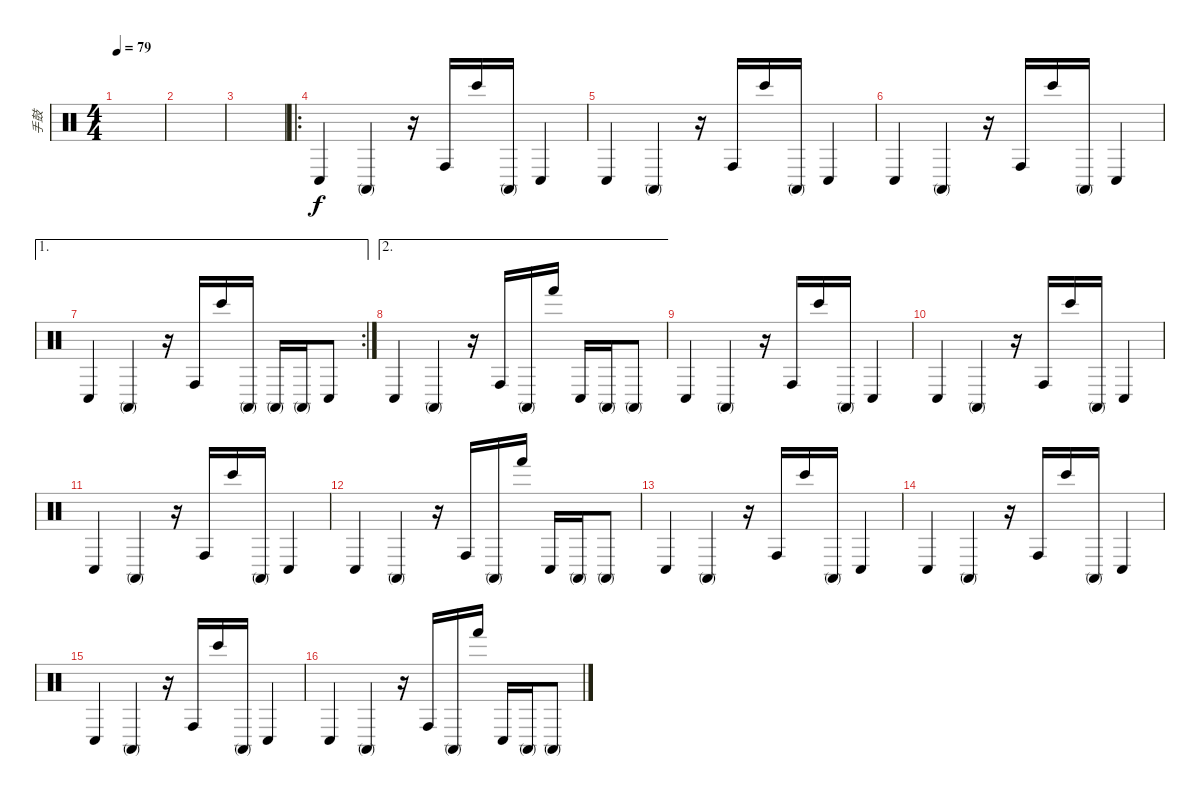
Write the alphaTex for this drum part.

\track ("手鼓" "手鼓") {instrument percussion}
\staff {score}
\articulation defaults
\ts (4 4)
\tempo 79
\clef neutral
\ks c
|
|
|
\ro "Conga low (hit)".4 "Conga high (mute)".4
r.16 "Conga high (hit)".16 "Bongo High (hit)".16 "Conga high (mute)".16 "Conga low (hit)".4 |
"Conga low (hit)".4 "Conga high (mute)".4 r.16 "Conga high (hit)".16 "Bongo High (hit)".16 "Conga high (mute)".16 "Conga low (hit)".4 |
"Conga low (hit)".4 "Conga high (mute)".4 r.16 "Conga high (hit)".16 "Bongo High (hit)".16 "Conga high (mute)".16 "Conga low (hit)".4 |
\ae 1
\rc 2 "Conga low (hit)".4 "Conga high (mute)".4
r.16 "Conga high (hit)".16 "Bongo High (hit)".16 "Conga high (mute)".16 "Conga high (mute)".16 "Conga high (mute)".16 "Conga low (hit)".8 |
\ae 2 "Conga low (hit)".4 "Conga high (mute)".4
r.16 "Conga high (hit)".16 "Conga high (mute)".16 "Hand (hit)".16 "Conga low (hit)".16 "Conga high (mute)".16 "Conga high (mute)".8 |
"Conga low (hit)".4 "Conga high (mute)".4 r.16 "Conga high (hit)".16 "Bongo High (hit)".16 "Conga high (mute)".16 "Conga low (hit)".4 |
"Conga low (hit)".4 "Conga high (mute)".4 r.16 "Conga high (hit)".16 "Bongo High (hit)".16 "Conga high (mute)".16 "Conga low (hit)".4 |
"Conga low (hit)".4 "Conga high (mute)".4 r.16 "Conga high (hit)".16 "Bongo High (hit)".16 "Conga high (mute)".16 "Conga low (hit)".4 |
"Conga low (hit)".4 "Conga high (mute)".4 r.16 "Conga high (hit)".16 "Conga high (mute)".16 "Hand (hit)".16 "Conga low (hit)".16 "Conga high (mute)".16 "Conga high (mute)".8 |
"Conga low (hit)".4 "Conga high (mute)".4 r.16 "Conga high (hit)".16 "Bongo High (hit)".16 "Conga high (mute)".16 "Conga low (hit)".4 |
"Conga low (hit)".4 "Conga high (mute)".4 r.16 "Conga high (hit)".16 "Bongo High (hit)".16 "Conga high (mute)".16 "Conga low (hit)".4 |
"Conga low (hit)".4 "Conga high (mute)".4 r.16 "Conga high (hit)".16 "Bongo High (hit)".16 "Conga high (mute)".16 "Conga low (hit)".4 |
"Conga low (hit)".4 "Conga high (mute)".4 r.16 "Conga high (hit)".16 "Conga high (mute)".16 "Hand (hit)".16 "Conga low (hit)".16 "Conga high (mute)".16 "Conga high (mute)".8
